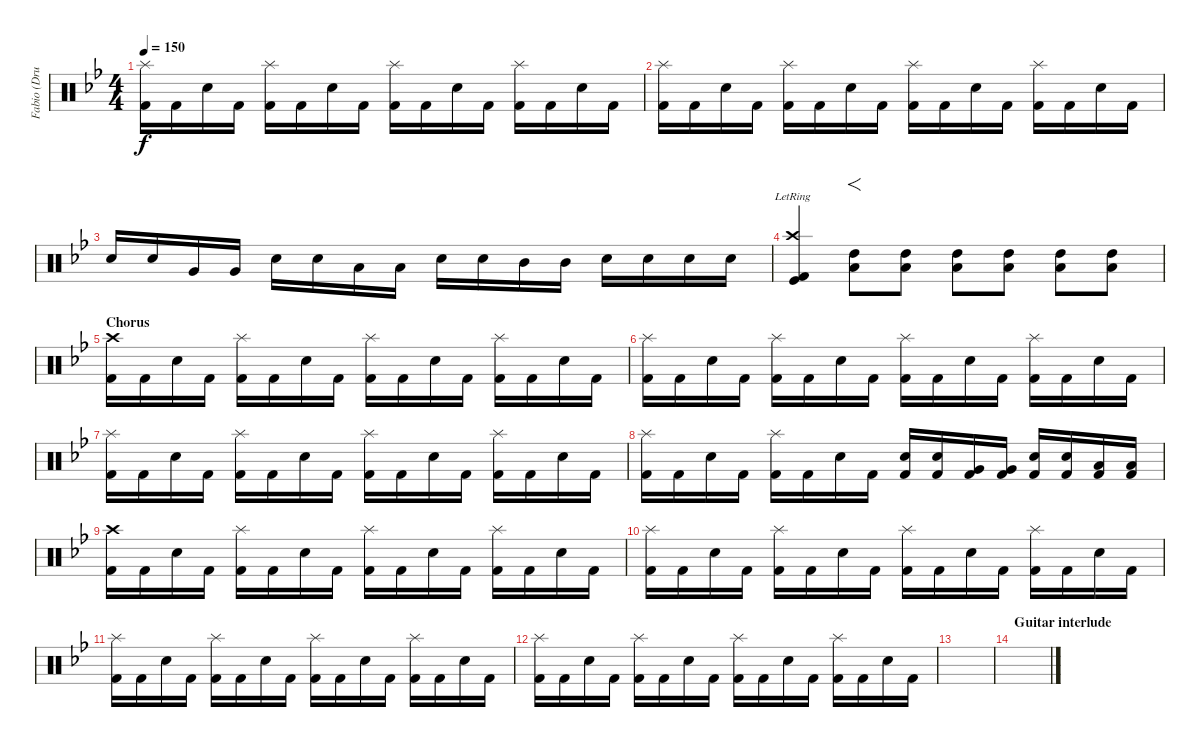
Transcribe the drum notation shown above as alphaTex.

\track ("Fabio (Drums)" "Fabio (Dru") {instrument percussion}
\staff {score}
\articulation defaults
\ts (4 4)
\tempo 150
\clef neutral
\ks gminor
("Splash (hit)" "Kick (hit) 2").16{dy f} "Kick (hit) 2".16 "Snare (hit) 2".16 "Kick (hit) 2".16 ("Splash (hit)" "Kick (hit) 2").16 "Kick (hit) 2".16 "Snare (hit) 2".16 "Kick (hit) 2".16 ("Splash (hit)" "Kick (hit) 2").16 "Kick (hit) 2".16 "Snare (hit) 2".16 "Kick (hit) 2".16 ("Splash (hit)" "Kick (hit) 2").16 "Kick (hit) 2".16 "Snare (hit) 2".16 "Kick (hit) 2".16 |
("Splash (hit)" "Kick (hit) 2").16 "Kick (hit) 2".16 "Snare (hit) 2".16 "Kick (hit) 2".16 ("Splash (hit)" "Kick (hit) 2").16 "Kick (hit) 2".16 "Snare (hit) 2".16 "Kick (hit) 2".16 ("Splash (hit)" "Kick (hit) 2").16 "Kick (hit) 2".16 "Snare (hit) 2".16 "Kick (hit) 2".16 ("Splash (hit)" "Kick (hit) 2").16 "Kick (hit) 2".16 "Snare (hit) 2".16 "Kick (hit) 2".16 |
"Snare (hit) 2".16 "Snare (hit) 2".16 "Very Low Tom (hit)".16 "Very Low Tom (hit)".16 "Snare (hit) 2".16 "Snare (hit) 2".16 "Low Tom (hit)".16 "Low Tom (hit)".16 "Snare (hit) 2".16 "Snare (hit) 2".16 "Mid Tom (hit)".16 "Mid Tom (hit)".16 "Snare (hit) 2".16 "Snare (hit) 2".16 "Snare (hit) 2".16 "Snare (hit) 2".16 |
("Crash high (hit)"{lr} "Kick (hit)" "Kick (hit) 2").4 ("Low Tom (hit)" "High Tom (hit)").8{f} ("Low Tom (hit)" "High Tom (hit)").8 ("Low Tom (hit)" "High Tom (hit)").8 ("Low Tom (hit)" "High Tom (hit)").8 ("Low Tom (hit)" "High Tom (hit)").8 ("Low Tom (hit)" "High Tom (hit)").8 |
\section ("" "Chorus")
("Crash high (hit)" "Kick (hit) 2").16 "Kick (hit) 2".16 "Snare (hit) 2".16 "Kick (hit) 2".16 ("Splash (hit)" "Kick (hit) 2").16 "Kick (hit) 2".16 "Snare (hit) 2".16 "Kick (hit) 2".16 ("Splash (hit)" "Kick (hit) 2").16 "Kick (hit) 2".16 "Snare (hit) 2".16 "Kick (hit) 2".16 ("Splash (hit)" "Kick (hit) 2").16 "Kick (hit) 2".16 "Snare (hit) 2".16 "Kick (hit) 2".16 |
("Splash (hit)" "Kick (hit) 2").16 "Kick (hit) 2".16 "Snare (hit) 2".16 "Kick (hit) 2".16 ("Splash (hit)" "Kick (hit) 2").16 "Kick (hit) 2".16 "Snare (hit) 2".16 "Kick (hit) 2".16 ("Splash (hit)" "Kick (hit) 2").16 "Kick (hit) 2".16 "Snare (hit) 2".16 "Kick (hit) 2".16 ("Splash (hit)" "Kick (hit) 2").16 "Kick (hit) 2".16 "Snare (hit) 2".16 "Kick (hit) 2".16 |
("Splash (hit)" "Kick (hit) 2").16 "Kick (hit) 2".16 "Snare (hit) 2".16 "Kick (hit) 2".16 ("Splash (hit)" "Kick (hit) 2").16 "Kick (hit) 2".16 "Snare (hit) 2".16 "Kick (hit) 2".16 ("Splash (hit)" "Kick (hit) 2").16 "Kick (hit) 2".16 "Snare (hit) 2".16 "Kick (hit) 2".16 ("Splash (hit)" "Kick (hit) 2").16 "Kick (hit) 2".16 "Snare (hit) 2".16 "Kick (hit) 2".16 |
("Splash (hit)" "Kick (hit) 2").16 "Kick (hit) 2".16 "Snare (hit) 2".16 "Kick (hit) 2".16 ("Splash (hit)" "Kick (hit) 2").16 "Kick (hit) 2".16 "Snare (hit) 2".16 "Kick (hit) 2".16 ("Snare (hit) 2" "Kick (hit) 2").16 ("Snare (hit) 2" "Kick (hit) 2").16 ("Very Low Tom (hit)" "Kick (hit) 2").16 ("Very Low Tom (hit)" "Kick (hit) 2").16 ("Snare (hit) 2" "Kick (hit) 2").16 ("Snare (hit) 2" "Kick (hit) 2").16 ("Low Tom (hit)" "Kick (hit) 2").16 ("Low Tom (hit)" "Kick (hit) 2").16 |
("Crash high (hit)" "Kick (hit) 2").16 "Kick (hit) 2".16 "Snare (hit) 2".16 "Kick (hit) 2".16 ("Splash (hit)" "Kick (hit) 2").16 "Kick (hit) 2".16 "Snare (hit) 2".16 "Kick (hit) 2".16 ("Splash (hit)" "Kick (hit) 2").16 "Kick (hit) 2".16 "Snare (hit) 2".16 "Kick (hit) 2".16 ("Splash (hit)" "Kick (hit) 2").16 "Kick (hit) 2".16 "Snare (hit) 2".16 "Kick (hit) 2".16 |
("Splash (hit)" "Kick (hit) 2").16 "Kick (hit) 2".16 "Snare (hit) 2".16 "Kick (hit) 2".16 ("Splash (hit)" "Kick (hit) 2").16 "Kick (hit) 2".16 "Snare (hit) 2".16 "Kick (hit) 2".16 ("Splash (hit)" "Kick (hit) 2").16 "Kick (hit) 2".16 "Snare (hit) 2".16 "Kick (hit) 2".16 ("Splash (hit)" "Kick (hit) 2").16 "Kick (hit) 2".16 "Snare (hit) 2".16 "Kick (hit) 2".16 |
("Splash (hit)" "Kick (hit) 2").16 "Kick (hit) 2".16 "Snare (hit) 2".16 "Kick (hit) 2".16 ("Splash (hit)" "Kick (hit) 2").16 "Kick (hit) 2".16 "Snare (hit) 2".16 "Kick (hit) 2".16 ("Splash (hit)" "Kick (hit) 2").16 "Kick (hit) 2".16 "Snare (hit) 2".16 "Kick (hit) 2".16 ("Splash (hit)" "Kick (hit) 2").16 "Kick (hit) 2".16 "Snare (hit) 2".16 "Kick (hit) 2".16 |
("Splash (hit)" "Kick (hit) 2").16 "Kick (hit) 2".16 "Snare (hit) 2".16 "Kick (hit) 2".16 ("Splash (hit)" "Kick (hit) 2").16 "Kick (hit) 2".16 "Snare (hit) 2".16 "Kick (hit) 2".16 ("Splash (hit)" "Kick (hit) 2").16 "Kick (hit) 2".16 "Snare (hit) 2".16 "Kick (hit) 2".16 ("Splash (hit)" "Kick (hit) 2").16 "Kick (hit) 2".16 "Snare (hit) 2".16 "Kick (hit) 2".16 |
|
\section ("" "Guitar interlude")
